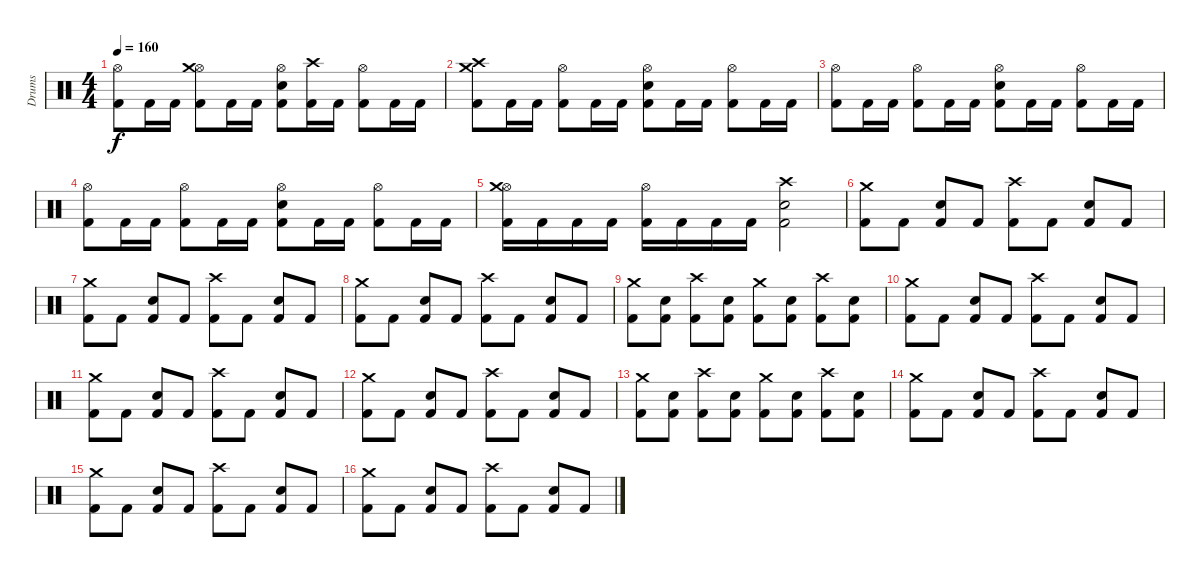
\track ("Drums" "Drums") {instrument percussion}
\staff {score}
\articulation defaults
\ts (4 4)
\tempo 160
\clef neutral
\ks c
("Hi-Hat (open)" "Kick (hit) 2").8{dy f} "Kick (hit) 2".16 "Kick (hit) 2".16 ("Hi-Hat (open)" "Crash medium (hit)" "Kick (hit) 2").8 "Kick (hit) 2".16 "Kick (hit) 2".16 ("Hi-Hat (open)" "Kick (hit) 2" "Snare (hit) 2").8 ("Crash high (hit)" "Kick (hit) 2").16 "Kick (hit) 2".16 ("Hi-Hat (open)" "Kick (hit) 2").8 "Kick (hit) 2".16 "Kick (hit) 2".16 |
("Crash medium (hit)" "Crash high (hit)" "Kick (hit) 2").8 "Kick (hit) 2".16 "Kick (hit) 2".16 ("Hi-Hat (open)" "Kick (hit) 2").8 "Kick (hit) 2".16 "Kick (hit) 2".16 ("Hi-Hat (open)" "Kick (hit) 2" "Snare (hit) 2").8 "Kick (hit) 2".16 "Kick (hit) 2".16 ("Hi-Hat (open)" "Kick (hit) 2").8 "Kick (hit) 2".16 "Kick (hit) 2".16 |
("Hi-Hat (open)" "Kick (hit) 2").8 "Kick (hit) 2".16 "Kick (hit) 2".16 ("Hi-Hat (open)" "Kick (hit) 2").8 "Kick (hit) 2".16 "Kick (hit) 2".16 ("Hi-Hat (open)" "Kick (hit) 2" "Snare (hit) 2").8 "Kick (hit) 2".16 "Kick (hit) 2".16 ("Hi-Hat (open)" "Kick (hit) 2").8 "Kick (hit) 2".16 "Kick (hit) 2".16 |
("Hi-Hat (open)" "Kick (hit) 2").8 "Kick (hit) 2".16 "Kick (hit) 2".16 ("Hi-Hat (open)" "Kick (hit) 2").8 "Kick (hit) 2".16 "Kick (hit) 2".16 ("Hi-Hat (open)" "Kick (hit) 2" "Snare (hit) 2").8 "Kick (hit) 2".16 "Kick (hit) 2".16 ("Hi-Hat (open)" "Kick (hit) 2").8 "Kick (hit) 2".16 "Kick (hit) 2".16 |
("Hi-Hat (open)" "Crash medium (hit)" "Kick (hit) 2").16 "Kick (hit) 2".16 "Kick (hit) 2".16 "Kick (hit) 2".16 ("Hi-Hat (open)" "Kick (hit) 2").16 "Kick (hit) 2".16 "Kick (hit) 2".16 "Kick (hit) 2".16 ("Crash high (hit)" "Kick (hit) 2" "Snare (hit) 2").2 |
("Crash medium (hit)" "Kick (hit) 2").8 "Kick (hit) 2".8 ("Kick (hit) 2" "Snare (hit) 2").8 "Kick (hit) 2".8 ("Crash high (hit)" "Kick (hit) 2").8 "Kick (hit) 2".8 ("Kick (hit) 2" "Snare (hit) 2").8 "Kick (hit) 2".8 |
("Crash medium (hit)" "Kick (hit) 2").8 "Kick (hit) 2".8 ("Kick (hit) 2" "Snare (hit) 2").8 "Kick (hit) 2".8 ("Crash high (hit)" "Kick (hit) 2").8 "Kick (hit) 2".8 ("Kick (hit) 2" "Snare (hit) 2").8 "Kick (hit) 2".8 |
("Crash medium (hit)" "Kick (hit) 2").8 "Kick (hit) 2".8 ("Kick (hit) 2" "Snare (hit) 2").8 "Kick (hit) 2".8 ("Crash high (hit)" "Kick (hit) 2").8 "Kick (hit) 2".8 ("Kick (hit) 2" "Snare (hit) 2").8 "Kick (hit) 2".8 |
("Crash medium (hit)" "Kick (hit) 2").8 ("Kick (hit) 2" "Snare (hit) 2").8 ("Crash high (hit)" "Kick (hit) 2").8 ("Kick (hit) 2" "Snare (hit) 2").8 ("Crash medium (hit)" "Kick (hit) 2").8 ("Kick (hit) 2" "Snare (hit) 2").8 ("Crash high (hit)" "Kick (hit) 2").8 ("Kick (hit) 2" "Snare (hit) 2").8 |
("Crash medium (hit)" "Kick (hit) 2").8 "Kick (hit) 2".8 ("Kick (hit) 2" "Snare (hit) 2").8 "Kick (hit) 2".8 ("Crash high (hit)" "Kick (hit) 2").8 "Kick (hit) 2".8 ("Kick (hit) 2" "Snare (hit) 2").8 "Kick (hit) 2".8 |
("Crash medium (hit)" "Kick (hit) 2").8 "Kick (hit) 2".8 ("Kick (hit) 2" "Snare (hit) 2").8 "Kick (hit) 2".8 ("Crash high (hit)" "Kick (hit) 2").8 "Kick (hit) 2".8 ("Kick (hit) 2" "Snare (hit) 2").8 "Kick (hit) 2".8 |
("Crash medium (hit)" "Kick (hit) 2").8 "Kick (hit) 2".8 ("Kick (hit) 2" "Snare (hit) 2").8 "Kick (hit) 2".8 ("Crash high (hit)" "Kick (hit) 2").8 "Kick (hit) 2".8 ("Kick (hit) 2" "Snare (hit) 2").8 "Kick (hit) 2".8 |
("Crash medium (hit)" "Kick (hit) 2").8 ("Kick (hit) 2" "Snare (hit) 2").8 ("Crash high (hit)" "Kick (hit) 2").8 ("Kick (hit) 2" "Snare (hit) 2").8 ("Crash medium (hit)" "Kick (hit) 2").8 ("Kick (hit) 2" "Snare (hit) 2").8 ("Crash high (hit)" "Kick (hit) 2").8 ("Kick (hit) 2" "Snare (hit) 2").8 |
("Crash medium (hit)" "Kick (hit) 2").8 "Kick (hit) 2".8 ("Kick (hit) 2" "Snare (hit) 2").8 "Kick (hit) 2".8 ("Crash high (hit)" "Kick (hit) 2").8 "Kick (hit) 2".8 ("Kick (hit) 2" "Snare (hit) 2").8 "Kick (hit) 2".8 |
("Crash medium (hit)" "Kick (hit) 2").8 "Kick (hit) 2".8 ("Kick (hit) 2" "Snare (hit) 2").8 "Kick (hit) 2".8 ("Crash high (hit)" "Kick (hit) 2").8 "Kick (hit) 2".8 ("Kick (hit) 2" "Snare (hit) 2").8 "Kick (hit) 2".8 |
("Crash medium (hit)" "Kick (hit) 2").8 "Kick (hit) 2".8 ("Kick (hit) 2" "Snare (hit) 2").8 "Kick (hit) 2".8 ("Crash high (hit)" "Kick (hit) 2").8 "Kick (hit) 2".8 ("Kick (hit) 2" "Snare (hit) 2").8 "Kick (hit) 2".8
